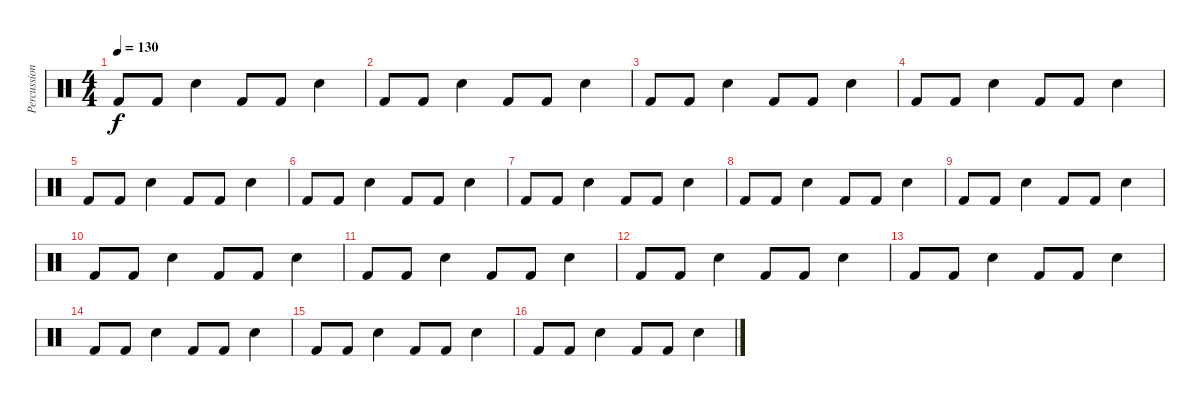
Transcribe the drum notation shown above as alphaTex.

\track ("Percussions" "Percussion") {instrument percussion}
\staff {score}
\articulation defaults
\ts (4 4)
\tempo 130
\clef neutral
\ks c "Kick (hit) 2".8{dy f} "Kick (hit) 2".8 "Snare (hit) 2".4 "Kick (hit) 2".8 "Kick (hit) 2".8 "Snare (hit) 2".4
|
"Kick (hit) 2".8 "Kick (hit) 2".8 "Snare (hit) 2".4 "Kick (hit) 2".8 "Kick (hit) 2".8 "Snare (hit) 2".4 |
"Kick (hit) 2".8 "Kick (hit) 2".8 "Snare (hit) 2".4 "Kick (hit) 2".8 "Kick (hit) 2".8 "Snare (hit) 2".4 |
"Kick (hit) 2".8 "Kick (hit) 2".8 "Snare (hit) 2".4 "Kick (hit) 2".8 "Kick (hit) 2".8 "Snare (hit) 2".4 |
"Kick (hit) 2".8 "Kick (hit) 2".8 "Snare (hit) 2".4 "Kick (hit) 2".8 "Kick (hit) 2".8 "Snare (hit) 2".4 |
"Kick (hit) 2".8 "Kick (hit) 2".8 "Snare (hit) 2".4 "Kick (hit) 2".8 "Kick (hit) 2".8 "Snare (hit) 2".4 |
"Kick (hit) 2".8 "Kick (hit) 2".8 "Snare (hit) 2".4 "Kick (hit) 2".8 "Kick (hit) 2".8 "Snare (hit) 2".4 |
"Kick (hit) 2".8 "Kick (hit) 2".8 "Snare (hit) 2".4 "Kick (hit) 2".8 "Kick (hit) 2".8 "Snare (hit) 2".4 |
"Kick (hit) 2".8 "Kick (hit) 2".8 "Snare (hit) 2".4 "Kick (hit) 2".8 "Kick (hit) 2".8 "Snare (hit) 2".4 |
"Kick (hit) 2".8 "Kick (hit) 2".8 "Snare (hit) 2".4 "Kick (hit) 2".8 "Kick (hit) 2".8 "Snare (hit) 2".4 |
"Kick (hit) 2".8 "Kick (hit) 2".8 "Snare (hit) 2".4 "Kick (hit) 2".8 "Kick (hit) 2".8 "Snare (hit) 2".4 |
"Kick (hit) 2".8 "Kick (hit) 2".8 "Snare (hit) 2".4 "Kick (hit) 2".8 "Kick (hit) 2".8 "Snare (hit) 2".4 |
"Kick (hit) 2".8 "Kick (hit) 2".8 "Snare (hit) 2".4 "Kick (hit) 2".8 "Kick (hit) 2".8 "Snare (hit) 2".4 |
"Kick (hit) 2".8 "Kick (hit) 2".8 "Snare (hit) 2".4 "Kick (hit) 2".8 "Kick (hit) 2".8 "Snare (hit) 2".4 |
"Kick (hit) 2".8 "Kick (hit) 2".8 "Snare (hit) 2".4 "Kick (hit) 2".8 "Kick (hit) 2".8 "Snare (hit) 2".4 |
"Kick (hit) 2".8 "Kick (hit) 2".8 "Snare (hit) 2".4 "Kick (hit) 2".8 "Kick (hit) 2".8 "Snare (hit) 2".4
